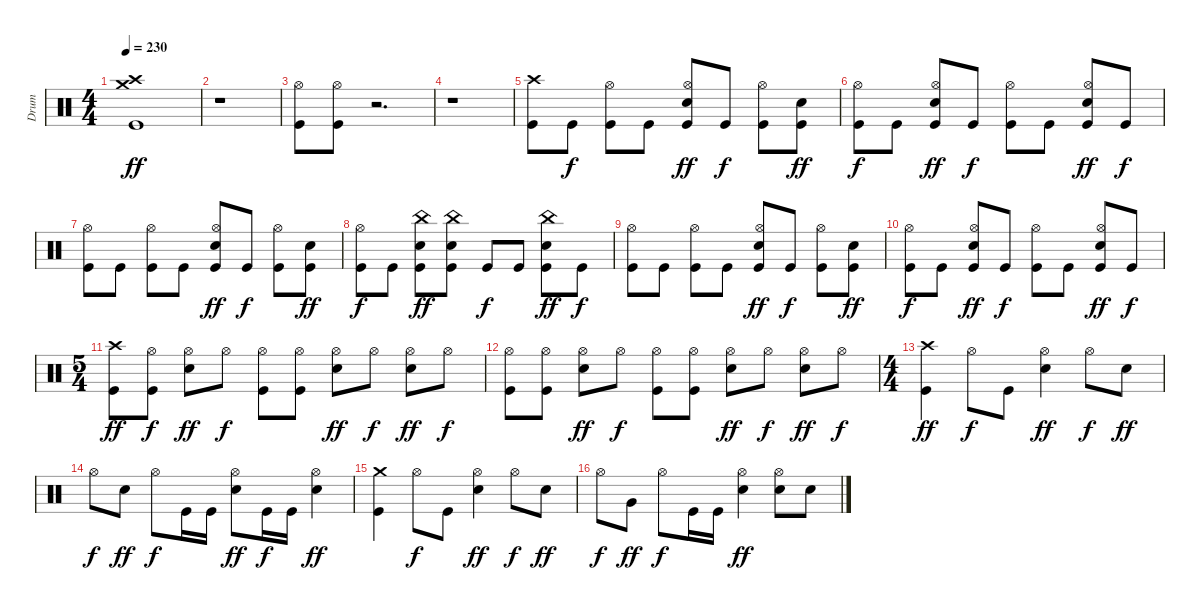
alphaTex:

\track ("Drum" "Drum") {instrument percussion}
\staff {score}
\articulation defaults
\ts (4 4)
\tempo 230
\clef neutral
\ks c
("Kick (hit)" "Crash high (hit)" "Crash medium (hit)").1{dy ff} |
r.1 |
("Kick (hit)" "Hi-Hat (open)").8 ("Kick (hit)" "Hi-Hat (open)").8 r.2{d} |
r.1 |
("Kick (hit)" "Crash high (hit)").8 "Kick (hit)".8{dy f} ("Kick (hit)" "Hi-Hat (open)").8 "Kick (hit)".8 ("Kick (hit)" "Electric Snare (hit)" "Hi-Hat (open)").8{dy ff} "Kick (hit)".8{dy f} ("Kick (hit)" "Hi-Hat (open)").8 ("Kick (hit)" "Electric Snare (hit)").8{dy ff} |
("Kick (hit)" "Hi-Hat (open)").8{dy f} "Kick (hit)".8 ("Kick (hit)" "Electric Snare (hit)" "Hi-Hat (open)").8{dy ff} "Kick (hit)".8{dy f} ("Kick (hit)" "Hi-Hat (open)").8 "Kick (hit)".8 ("Kick (hit)" "Electric Snare (hit)" "Hi-Hat (open)").8{dy ff} "Kick (hit)".8{dy f} |
("Kick (hit)" "Hi-Hat (open)").8 "Kick (hit)".8 ("Kick (hit)" "Hi-Hat (open)").8 "Kick (hit)".8 ("Kick (hit)" "Electric Snare (hit)" "Hi-Hat (open)").8{dy ff} "Kick (hit)".8{dy f} ("Kick (hit)" "Hi-Hat (open)").8 ("Kick (hit)" "Electric Snare (hit)").8{dy ff} |
("Kick (hit)" "Hi-Hat (open)").8{dy f} "Kick (hit)".8 ("Kick (hit)" "Electric Snare (hit)" "China (hit)").8{dy ff} ("Kick (hit)" "Electric Snare (hit)" "China (hit)").8 "Kick (hit)".8{dy f} "Kick (hit)".8 ("Kick (hit)" "Electric Snare (hit)" "China (hit)").8{dy ff} "Kick (hit)".8{dy f} |
("Kick (hit)" "Hi-Hat (open)").8 "Kick (hit)".8 ("Kick (hit)" "Hi-Hat (open)").8 "Kick (hit)".8 ("Kick (hit)" "Electric Snare (hit)" "Hi-Hat (open)").8{dy ff} "Kick (hit)".8{dy f} ("Kick (hit)" "Hi-Hat (open)").8 ("Kick (hit)" "Electric Snare (hit)").8{dy ff} |
("Kick (hit)" "Hi-Hat (open)").8{dy f} "Kick (hit)".8 ("Kick (hit)" "Electric Snare (hit)" "Hi-Hat (open)").8{dy ff} "Kick (hit)".8{dy f} ("Kick (hit)" "Hi-Hat (open)").8 "Kick (hit)".8 ("Kick (hit)" "Electric Snare (hit)" "Hi-Hat (open)").8{dy ff} "Kick (hit)".8{dy f} |
\ts (5 4)
("Kick (hit)" "Crash high (hit)").8{dy ff} ("Kick (hit)" "Hi-Hat (open)").8{dy f} ("Electric Snare (hit)" "Hi-Hat (open)").8{dy ff} "Hi-Hat (open)".8{dy f} ("Kick (hit)" "Hi-Hat (open)").8 ("Kick (hit)" "Hi-Hat (open)").8 ("Electric Snare (hit)" "Hi-Hat (open)").8{dy ff} "Hi-Hat (open)".8{dy f} ("Electric Snare (hit)" "Hi-Hat (open)").8{dy ff} "Hi-Hat (open)".8{dy f} |
("Kick (hit)" "Hi-Hat (open)").8 ("Kick (hit)" "Hi-Hat (open)").8 ("Electric Snare (hit)" "Hi-Hat (open)").8{dy ff} "Hi-Hat (open)".8{dy f} ("Kick (hit)" "Hi-Hat (open)").8 ("Kick (hit)" "Hi-Hat (open)").8 ("Electric Snare (hit)" "Hi-Hat (open)").8{dy ff} "Hi-Hat (open)".8{dy f} ("Electric Snare (hit)" "Hi-Hat (open)").8{dy ff} "Hi-Hat (open)".8{dy f} |
\ts (4 4)
("Kick (hit)" "Crash high (hit)").4{dy ff} "Hi-Hat (open)".8{dy f} "Kick (hit)".8 ("Electric Snare (hit)" "Hi-Hat (open)").4{dy ff} "Hi-Hat (open)".8{dy f} "Electric Snare (hit)".8{dy ff} |
"Hi-Hat (open)".8{dy f} "Electric Snare (hit)".8{dy ff} "Hi-Hat (open)".8{dy f} "Kick (hit)".16 "Kick (hit)".16 ("Electric Snare (hit)" "Hi-Hat (open)").8{dy ff} "Kick (hit)".16{dy f} "Kick (hit)".16 ("Electric Snare (hit)" "Hi-Hat (open)").4{dy ff} |
("Kick (hit)" "Crash medium (hit)").4 "Hi-Hat (open)".8{dy f} "Kick (hit)".8 ("Electric Snare (hit)" "Hi-Hat (open)").4{dy ff} "Hi-Hat (open)".8{dy f} "Electric Snare (hit)".8{dy ff} |
"Hi-Hat (open)".8{dy f} "Very Low Tom (hit)".8{dy ff} "Hi-Hat (open)".8{dy f} "Kick (hit)".16 "Kick (hit)".16 ("Electric Snare (hit)" "Hi-Hat (open)").4{dy ff} ("Electric Snare (hit)" "Hi-Hat (open)").8 "Electric Snare (hit)".8
